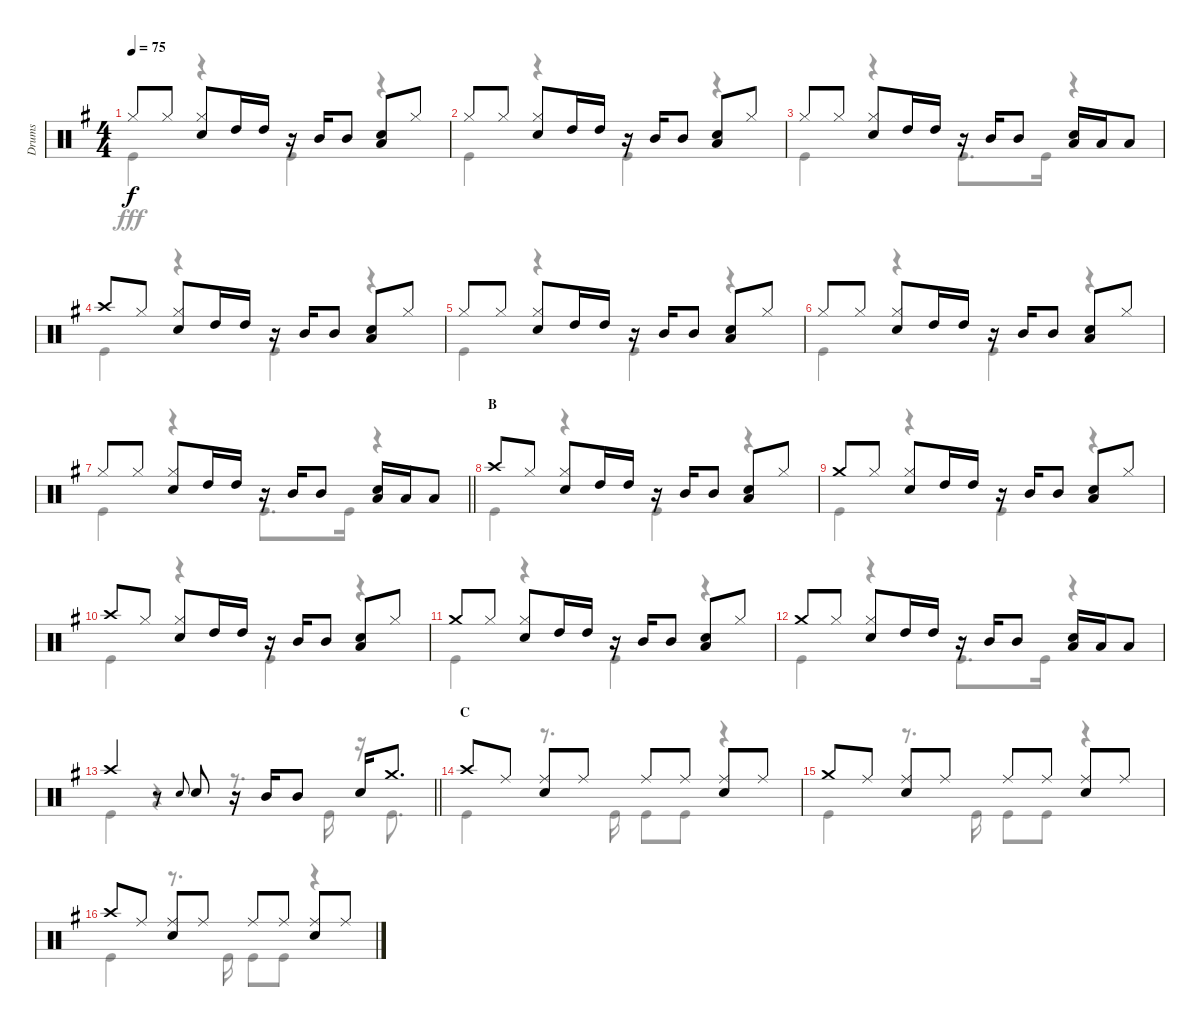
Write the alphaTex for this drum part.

\track ("Drums" "Drums") {instrument percussion}
\staff {score}
\articulation defaults
\voice
\ts (4 4)
\tempo 75
\clef neutral
\ks g "Hi-Hat (closed)".8{dy f} "Hi-Hat (closed)".8
("Hi-Hat (closed)" "Snare (hit) 2").8 "High Tom (hit)".16 "High Tom (hit)".16 r.16 "Mid Tom (hit)".16 "Mid Tom (hit)".8 ("Snare (hit) 2" "Low Tom (hit)").8 "Hi-Hat (closed)".8 |
"Hi-Hat (closed)".8 "Hi-Hat (closed)".8 ("Hi-Hat (closed)" "Snare (hit) 2").8 "High Tom (hit)".16 "High Tom (hit)".16 r.16 "Mid Tom (hit)".16 "Mid Tom (hit)".8 ("Snare (hit) 2" "Low Tom (hit)").8 "Hi-Hat (closed)".8 |
"Hi-Hat (closed)".8 "Hi-Hat (closed)".8 ("Hi-Hat (closed)" "Snare (hit) 2").8 "High Tom (hit)".16 "High Tom (hit)".16 r.16 "Mid Tom (hit)".16 "Mid Tom (hit)".8 ("Snare (hit) 2" "Low Tom (hit)").16 "Low Tom (hit)".16 "Low Tom (hit)".8 |
"Crash high (hit)".8 "Hi-Hat (closed)".8 ("Hi-Hat (closed)" "Snare (hit) 2").8 "High Tom (hit)".16 "High Tom (hit)".16 r.16 "Mid Tom (hit)".16 "Mid Tom (hit)".8 ("Snare (hit) 2" "Low Tom (hit)").8 "Hi-Hat (closed)".8 |
"Hi-Hat (closed)".8 "Hi-Hat (closed)".8 ("Hi-Hat (closed)" "Snare (hit) 2").8 "High Tom (hit)".16 "High Tom (hit)".16 r.16 "Mid Tom (hit)".16 "Mid Tom (hit)".8 ("Snare (hit) 2" "Low Tom (hit)").8 "Hi-Hat (closed)".8 |
"Hi-Hat (closed)".8 "Hi-Hat (closed)".8 ("Hi-Hat (closed)" "Snare (hit) 2").8 "High Tom (hit)".16 "High Tom (hit)".16 r.16 "Mid Tom (hit)".16 "Mid Tom (hit)".8 ("Snare (hit) 2" "Low Tom (hit)").8 "Hi-Hat (closed)".8 |
\barLineRight lightlight "Hi-Hat (closed)".8 "Hi-Hat (closed)".8
("Hi-Hat (closed)" "Snare (hit) 2").8 "High Tom (hit)".16 "High Tom (hit)".16 r.16 "Mid Tom (hit)".16 "Mid Tom (hit)".8 ("Snare (hit) 2" "Low Tom (hit)").16 "Low Tom (hit)".16 "Low Tom (hit)".8 |
\section ("" "B")
"Crash high (hit)".8 "Hi-Hat (closed)".8 ("Hi-Hat (closed)" "Snare (hit) 2").8 "High Tom (hit)".16 "High Tom (hit)".16 r.16 "Mid Tom (hit)".16 "Mid Tom (hit)".8 ("Snare (hit) 2" "Low Tom (hit)").8 "Hi-Hat (closed)".8 |
"Crash medium (hit)".8 "Hi-Hat (closed)".8 ("Hi-Hat (closed)" "Snare (hit) 2").8 "High Tom (hit)".16 "High Tom (hit)".16 r.16 "Mid Tom (hit)".16 "Mid Tom (hit)".8 ("Snare (hit) 2" "Low Tom (hit)").8 "Hi-Hat (closed)".8 |
"Crash high (hit)".8 "Hi-Hat (closed)".8 ("Hi-Hat (closed)" "Snare (hit) 2").8 "High Tom (hit)".16 "High Tom (hit)".16 r.16 "Mid Tom (hit)".16 "Mid Tom (hit)".8 ("Snare (hit) 2" "Low Tom (hit)").8 "Hi-Hat (closed)".8 |
"Crash medium (hit)".8 "Hi-Hat (closed)".8 ("Hi-Hat (closed)" "Snare (hit) 2").8 "High Tom (hit)".16 "High Tom (hit)".16 r.16 "Mid Tom (hit)".16 "Mid Tom (hit)".8 ("Snare (hit) 2" "Low Tom (hit)").8 "Hi-Hat (closed)".8 |
"Crash medium (hit)".8 "Hi-Hat (closed)".8 ("Hi-Hat (closed)" "Snare (hit) 2").8 "High Tom (hit)".16 "High Tom (hit)".16 r.16 "Mid Tom (hit)".16 "Mid Tom (hit)".8 ("Snare (hit) 2" "Low Tom (hit)").16 "Low Tom (hit)".16 "Low Tom (hit)".8 |
\barLineRight lightlight "Crash high (hit)".4
r.8 "Snare (hit) 2".8{gr onbeat} "Snare (hit) 2".8 r.16 "Mid Tom (hit)".16 "Mid Tom (hit)".8 "Snare (hit) 2".16 "Crash medium (hit)".8{d} |
\section ("" "C")
"Crash high (hit)".8 "Ride (middle)".8 ("Ride (middle)" "Snare (hit) 2").8 "Ride (middle)".8 "Ride (middle)".8 "Ride (middle)".8 ("Ride (middle)" "Snare (hit) 2").8 "Ride (middle)".8 |
"Crash medium (hit)".8 "Ride (middle)".8 ("Ride (middle)" "Snare (hit) 2").8 "Ride (middle)".8 "Ride (middle)".8 "Ride (middle)".8 ("Ride (middle)" "Snare (hit) 2").8 "Ride (middle)".8 |
"Crash high (hit)".8 "Ride (middle)".8 ("Ride (middle)" "Snare (hit) 2").8 "Ride (middle)".8 "Ride (middle)".8 "Ride (middle)".8 ("Ride (middle)" "Snare (hit) 2").8 "Ride (middle)".8
\voice
\clef neutral
\ottava regular
\simile none
\ks g "Kick (hit)".4{dy fff}
r.4 "Kick (hit)".4 r.4 |
"Kick (hit)".4 r.4 "Kick (hit)".4 r.4 |
"Kick (hit)".4 r.4 "Kick (hit)".8{d} "Kick (hit)".16 r.4 |
"Kick (hit)".4 r.4 "Kick (hit)".4 r.4 |
"Kick (hit)".4 r.4 "Kick (hit)".4 r.4 |
"Kick (hit)".4 r.4 "Kick (hit)".4 r.4 |
\barLineRight lightlight "Kick (hit)".4
r.4 "Kick (hit)".8{d} "Kick (hit)".16 r.4 |
"Kick (hit)".4 r.4 "Kick (hit)".4 r.4 |
"Kick (hit)".4 r.4 "Kick (hit)".4 r.4 |
"Kick (hit)".4 r.4 "Kick (hit)".4 r.4 |
"Kick (hit)".4 r.4 "Kick (hit)".4 r.4 |
"Kick (hit)".4 r.4 "Kick (hit)".8{d} "Kick (hit)".16 r.4 |
\barLineRight lightlight "Kick (hit)".4
r.4 r.8{d} "Kick (hit)".16 r.16 "Kick (hit)".8{d} |
"Kick (hit)".4 r.8{d} "Kick (hit)".16 "Kick (hit)".8 "Kick (hit)".8 r.4 |
"Kick (hit)".4 r.8{d} "Kick (hit)".16 "Kick (hit)".8 "Kick (hit)".8 r.4 |
"Kick (hit)".4 r.8{d} "Kick (hit)".16 "Kick (hit)".8 "Kick (hit)".8 r.4
